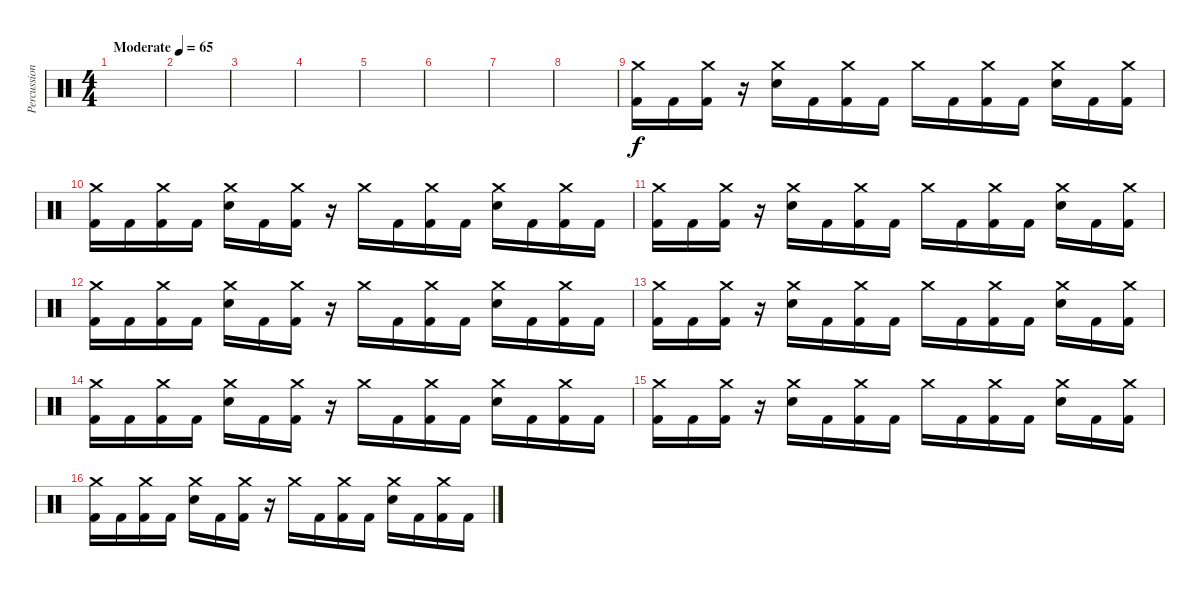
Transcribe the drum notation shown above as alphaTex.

\track ("Percussion" "Percussion") {instrument percussion}
\staff {score}
\articulation defaults
\ts (4 4)
\tempo (65 "Moderate")
\clef neutral
\ks c
|
|
|
|
|
|
|
|
("Kick (hit) 2" "Crash medium (hit)").16 "Kick (hit) 2".16 ("Kick (hit) 2" "Crash medium (hit)").16 r.16 ("Snare (hit) 2" "Crash medium (hit)").16 "Kick (hit) 2".16 ("Kick (hit) 2" "Crash medium (hit)").16 "Kick (hit) 2".16 "Crash medium (hit)".16 "Kick (hit) 2".16 ("Kick (hit) 2" "Crash medium (hit)").16 "Kick (hit) 2".16 ("Snare (hit) 2" "Crash medium (hit)").16 "Kick (hit) 2".16 ("Kick (hit) 2" "Crash medium (hit)").16 |
("Kick (hit) 2" "Crash medium (hit)").16 "Kick (hit) 2".16 ("Kick (hit) 2" "Crash medium (hit)").16 "Kick (hit) 2".16 ("Snare (hit) 2" "Crash medium (hit)").16 "Kick (hit) 2".16 ("Kick (hit) 2" "Crash medium (hit)").16 r.16 "Crash medium (hit)".16 "Kick (hit) 2".16 ("Kick (hit) 2" "Crash medium (hit)").16 "Kick (hit) 2".16 ("Snare (hit) 2" "Crash medium (hit)").16 "Kick (hit) 2".16 ("Kick (hit) 2" "Crash medium (hit)").16 "Kick (hit) 2".16 |
("Kick (hit) 2" "Crash medium (hit)").16 "Kick (hit) 2".16 ("Kick (hit) 2" "Crash medium (hit)").16 r.16 ("Snare (hit) 2" "Crash medium (hit)").16 "Kick (hit) 2".16 ("Kick (hit) 2" "Crash medium (hit)").16 "Kick (hit) 2".16 "Crash medium (hit)".16 "Kick (hit) 2".16 ("Kick (hit) 2" "Crash medium (hit)").16 "Kick (hit) 2".16 ("Snare (hit) 2" "Crash medium (hit)").16 "Kick (hit) 2".16 ("Kick (hit) 2" "Crash medium (hit)").16 |
("Kick (hit) 2" "Crash medium (hit)").16 "Kick (hit) 2".16 ("Kick (hit) 2" "Crash medium (hit)").16 "Kick (hit) 2".16 ("Snare (hit) 2" "Crash medium (hit)").16 "Kick (hit) 2".16 ("Kick (hit) 2" "Crash medium (hit)").16 r.16 "Crash medium (hit)".16 "Kick (hit) 2".16 ("Kick (hit) 2" "Crash medium (hit)").16 "Kick (hit) 2".16 ("Snare (hit) 2" "Crash medium (hit)").16 "Kick (hit) 2".16 ("Kick (hit) 2" "Crash medium (hit)").16 "Kick (hit) 2".16 |
("Kick (hit) 2" "Crash medium (hit)").16 "Kick (hit) 2".16 ("Kick (hit) 2" "Crash medium (hit)").16 r.16 ("Snare (hit) 2" "Crash medium (hit)").16 "Kick (hit) 2".16 ("Kick (hit) 2" "Crash medium (hit)").16 "Kick (hit) 2".16 "Crash medium (hit)".16 "Kick (hit) 2".16 ("Kick (hit) 2" "Crash medium (hit)").16 "Kick (hit) 2".16 ("Snare (hit) 2" "Crash medium (hit)").16 "Kick (hit) 2".16 ("Kick (hit) 2" "Crash medium (hit)").16 |
("Kick (hit) 2" "Crash medium (hit)").16 "Kick (hit) 2".16 ("Kick (hit) 2" "Crash medium (hit)").16 "Kick (hit) 2".16 ("Snare (hit) 2" "Crash medium (hit)").16 "Kick (hit) 2".16 ("Kick (hit) 2" "Crash medium (hit)").16 r.16 "Crash medium (hit)".16 "Kick (hit) 2".16 ("Kick (hit) 2" "Crash medium (hit)").16 "Kick (hit) 2".16 ("Snare (hit) 2" "Crash medium (hit)").16 "Kick (hit) 2".16 ("Kick (hit) 2" "Crash medium (hit)").16 "Kick (hit) 2".16 |
("Kick (hit) 2" "Crash medium (hit)").16 "Kick (hit) 2".16 ("Kick (hit) 2" "Crash medium (hit)").16 r.16 ("Snare (hit) 2" "Crash medium (hit)").16 "Kick (hit) 2".16 ("Kick (hit) 2" "Crash medium (hit)").16 "Kick (hit) 2".16 "Crash medium (hit)".16 "Kick (hit) 2".16 ("Kick (hit) 2" "Crash medium (hit)").16 "Kick (hit) 2".16 ("Snare (hit) 2" "Crash medium (hit)").16 "Kick (hit) 2".16 ("Kick (hit) 2" "Crash medium (hit)").16 |
("Kick (hit) 2" "Crash medium (hit)").16 "Kick (hit) 2".16 ("Kick (hit) 2" "Crash medium (hit)").16 "Kick (hit) 2".16 ("Snare (hit) 2" "Crash medium (hit)").16 "Kick (hit) 2".16 ("Kick (hit) 2" "Crash medium (hit)").16 r.16 "Crash medium (hit)".16 "Kick (hit) 2".16 ("Kick (hit) 2" "Crash medium (hit)").16 "Kick (hit) 2".16 ("Snare (hit) 2" "Crash medium (hit)").16 "Kick (hit) 2".16 ("Kick (hit) 2" "Crash medium (hit)").16 "Kick (hit) 2".16
